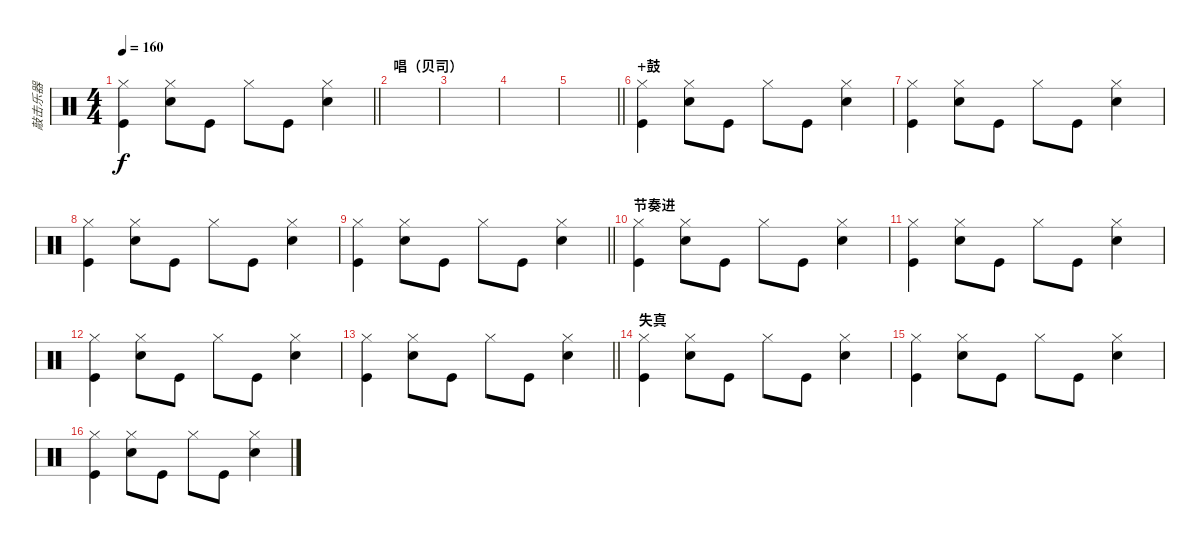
\track ("敲击乐器" "敲击乐器") {instrument percussion}
\staff {score}
\articulation defaults
\ts (4 4)
\tempo 160
\clef neutral
\barLineRight lightlight
\ks c
("Kick (hit)" "Hi-Hat (closed)").4{dy f} ("Hi-Hat (closed)" "Snare (hit) 2").8 "Kick (hit)".8 "Hi-Hat (closed)".8 "Kick (hit)".8 ("Hi-Hat (closed)" "Snare (hit) 2").4 |
\section ("" "唱（贝司）")
|
|
|
\barLineRight lightlight
|
\section ("" "+鼓")
("Kick (hit)" "Hi-Hat (closed)").4 ("Hi-Hat (closed)" "Snare (hit) 2").8 "Kick (hit)".8 "Hi-Hat (closed)".8 "Kick (hit)".8 ("Hi-Hat (closed)" "Snare (hit) 2").4 |
("Kick (hit)" "Hi-Hat (closed)").4 ("Hi-Hat (closed)" "Snare (hit) 2").8 "Kick (hit)".8 "Hi-Hat (closed)".8 "Kick (hit)".8 ("Hi-Hat (closed)" "Snare (hit) 2").4 |
("Kick (hit)" "Hi-Hat (closed)").4 ("Hi-Hat (closed)" "Snare (hit) 2").8 "Kick (hit)".8 "Hi-Hat (closed)".8 "Kick (hit)".8 ("Hi-Hat (closed)" "Snare (hit) 2").4 |
\barLineRight lightlight
("Kick (hit)" "Hi-Hat (closed)").4 ("Hi-Hat (closed)" "Snare (hit) 2").8 "Kick (hit)".8 "Hi-Hat (closed)".8 "Kick (hit)".8 ("Hi-Hat (closed)" "Snare (hit) 2").4 |
\section ("" "节奏进")
("Kick (hit)" "Hi-Hat (closed)").4 ("Hi-Hat (closed)" "Snare (hit) 2").8 "Kick (hit)".8 "Hi-Hat (closed)".8 "Kick (hit)".8 ("Hi-Hat (closed)" "Snare (hit) 2").4 |
("Kick (hit)" "Hi-Hat (closed)").4 ("Hi-Hat (closed)" "Snare (hit) 2").8 "Kick (hit)".8 "Hi-Hat (closed)".8 "Kick (hit)".8 ("Hi-Hat (closed)" "Snare (hit) 2").4 |
("Kick (hit)" "Hi-Hat (closed)").4 ("Hi-Hat (closed)" "Snare (hit) 2").8 "Kick (hit)".8 "Hi-Hat (closed)".8 "Kick (hit)".8 ("Hi-Hat (closed)" "Snare (hit) 2").4 |
\barLineRight lightlight
("Kick (hit)" "Hi-Hat (closed)").4 ("Hi-Hat (closed)" "Snare (hit) 2").8 "Kick (hit)".8 "Hi-Hat (closed)".8 "Kick (hit)".8 ("Hi-Hat (closed)" "Snare (hit) 2").4 |
\section ("" "失真")
("Kick (hit)" "Hi-Hat (closed)").4 ("Hi-Hat (closed)" "Snare (hit) 2").8 "Kick (hit)".8 "Hi-Hat (closed)".8 "Kick (hit)".8 ("Hi-Hat (closed)" "Snare (hit) 2").4 |
("Kick (hit)" "Hi-Hat (closed)").4 ("Hi-Hat (closed)" "Snare (hit) 2").8 "Kick (hit)".8 "Hi-Hat (closed)".8 "Kick (hit)".8 ("Hi-Hat (closed)" "Snare (hit) 2").4 |
("Kick (hit)" "Hi-Hat (closed)").4 ("Hi-Hat (closed)" "Snare (hit) 2").8 "Kick (hit)".8 "Hi-Hat (closed)".8 "Kick (hit)".8 ("Hi-Hat (closed)" "Snare (hit) 2").4
